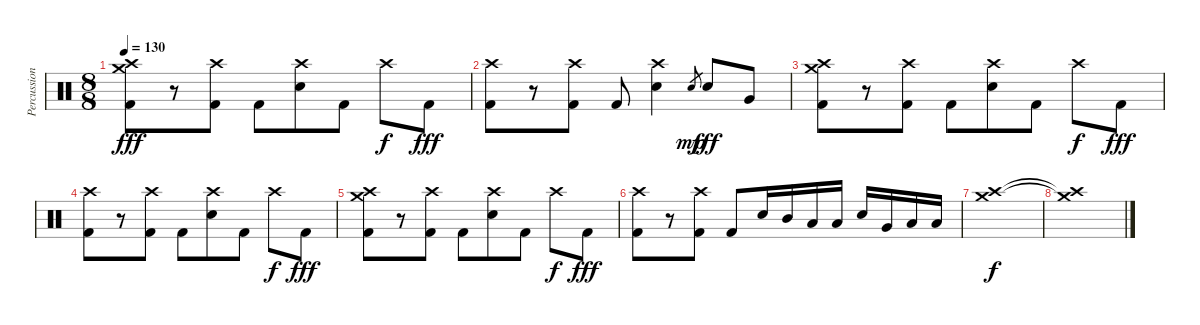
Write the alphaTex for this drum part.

\track ("Percussion" "Percussion") {instrument percussion}
\staff {score}
\articulation defaults
\ts (8 8)
\tempo 130
\clef neutral
\ks c
("Crash high (hit)" "Crash medium (hit)" "Kick (hit) 2").8{dy fff} r.8 ("Crash high (hit)" "Kick (hit) 2").8 "Kick (hit) 2".8 ("Crash high (hit)" "Electric Snare (hit)").8 "Kick (hit) 2".8 "Crash high (hit)".8{dy f} "Kick (hit) 2".8{dy fff} |
("Crash high (hit)" "Kick (hit) 2").8 r.8 ("Crash high (hit)" "Kick (hit) 2").8 "Kick (hit) 2".8 ("Crash high (hit)" "Electric Snare (hit)").4 "Electric Snare (hit)".8{gr dy mp} "Electric Snare (hit)".8{dy fff} "Very Low Tom (hit)".8 |
("Crash high (hit)" "Crash medium (hit)" "Kick (hit) 2").8 r.8 ("Crash high (hit)" "Kick (hit) 2").8 "Kick (hit) 2".8 ("Crash high (hit)" "Electric Snare (hit)").8 "Kick (hit) 2".8 "Crash high (hit)".8{dy f} "Kick (hit) 2".8{dy fff} |
("Crash high (hit)" "Kick (hit) 2").8 r.8 ("Crash high (hit)" "Kick (hit) 2").8 "Kick (hit) 2".8 ("Crash high (hit)" "Electric Snare (hit)").8 "Kick (hit) 2".8 "Crash high (hit)".8{dy f} "Kick (hit) 2".8{dy fff} |
("Crash high (hit)" "Crash medium (hit)" "Kick (hit) 2").8 r.8 ("Crash high (hit)" "Kick (hit) 2").8 "Kick (hit) 2".8 ("Crash high (hit)" "Electric Snare (hit)").8 "Kick (hit) 2".8 "Crash high (hit)".8{dy f} "Kick (hit) 2".8{dy fff} |
("Crash high (hit)" "Kick (hit) 2").8 r.8 ("Crash high (hit)" "Kick (hit) 2").8 "Kick (hit) 2".8 "Electric Snare (hit)".16 "Mid Tom (hit)".16 "Low Tom (hit)".16 "Low Tom (hit)".16 "Electric Snare (hit)".16 "Very Low Tom (hit)".16 "Low Floor Tom (hit)".16 "Low Floor Tom (hit)".16 |
("Crash high (hit)" "Crash medium (hit)").1{dy f} |
("Crash high (hit)"{t} "Crash medium (hit)"{t}).1
